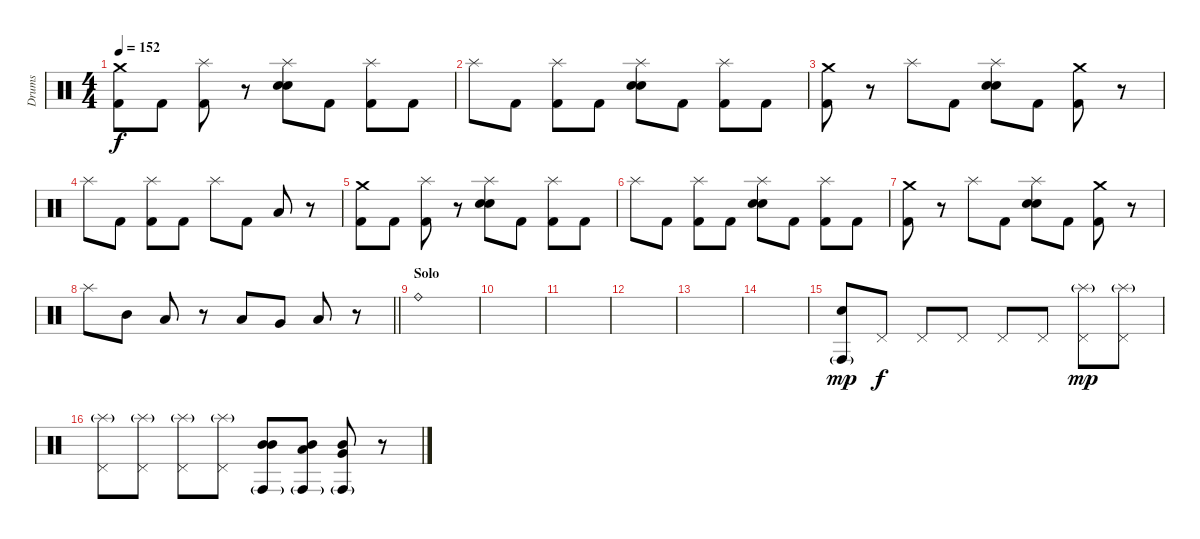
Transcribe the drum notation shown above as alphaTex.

\track ("Drums" "Drums") {instrument percussion}
\staff {score}
\articulation defaults
\ts (4 4)
\tempo 152
\clef neutral
\ks c
("Crash medium (hit)" "Kick (hit) 2").8{dy f} "Kick (hit) 2".8 ("Splash (hit)" "Kick (hit) 2").8 r.8 ("Splash (hit)" "Electric Snare (hit)" "Snare (hit) 2").8 "Kick (hit) 2".8 ("Splash (hit)" "Kick (hit) 2").8 "Kick (hit) 2".8 |
"Splash (hit)".8 "Kick (hit) 2".8 ("Splash (hit)" "Kick (hit) 2").8 "Kick (hit) 2".8 ("Splash (hit)" "Electric Snare (hit)" "Snare (hit) 2").8 "Kick (hit) 2".8 ("Splash (hit)" "Kick (hit) 2").8 "Kick (hit) 2".8 |
("Crash medium (hit)" "Kick (hit) 2").8 r.8 "Splash (hit)".8 "Kick (hit) 2".8 ("Splash (hit)" "Electric Snare (hit)" "Snare (hit) 2").8 "Kick (hit) 2".8 ("Crash medium (hit)" "Kick (hit) 2").8 r.8 |
"Splash (hit)".8 "Kick (hit) 2".8 ("Splash (hit)" "Kick (hit) 2").8 "Kick (hit) 2".8 "Splash (hit)".8 "Kick (hit) 2".8 "Low Tom (hit)".8 r.8 |
("Crash medium (hit)" "Kick (hit) 2").8 "Kick (hit) 2".8 ("Splash (hit)" "Kick (hit) 2").8 r.8 ("Splash (hit)" "Electric Snare (hit)" "Snare (hit) 2").8 "Kick (hit) 2".8 ("Splash (hit)" "Kick (hit) 2").8 "Kick (hit) 2".8 |
"Splash (hit)".8 "Kick (hit) 2".8 ("Splash (hit)" "Kick (hit) 2").8 "Kick (hit) 2".8 ("Splash (hit)" "Electric Snare (hit)" "Snare (hit) 2").8 "Kick (hit) 2".8 ("Splash (hit)" "Kick (hit) 2").8 "Kick (hit) 2".8 |
("Crash medium (hit)" "Kick (hit) 2").8 r.8 "Splash (hit)".8 "Kick (hit) 2".8 ("Splash (hit)" "Electric Snare (hit)" "Snare (hit) 2").8 "Kick (hit) 2".8 ("Crash medium (hit)" "Kick (hit) 2").8 r.8 |
\barLineRight lightlight "Splash (hit)".8 "Mid Tom (hit)".8 "Low Tom (hit)".8
r.8 "Low Tom (hit)".8 "Very Low Tom (hit)".8 "Low Floor Tom (hit)".8 r.8 |
\section ("" "Solo")
"Ride (bell)".1 |
|
|
|
|
|
("Conga high (hit)"{g} "Electric Snare (hit)").8{dy mp} "Pedal Hi-Hat (hit)".8{dy f volume 2} "Pedal Hi-Hat (hit)".8 "Pedal Hi-Hat (hit)".8 "Pedal Hi-Hat (hit)".8 "Pedal Hi-Hat (hit)".8 ("Splash (hit)"{g} "Pedal Hi-Hat (hit)").8{dy mp volume 12} ("Splash (hit)"{g} "Pedal Hi-Hat (hit)").8 |
("Splash (hit)"{g} "Pedal Hi-Hat (hit)").8 ("Splash (hit)"{g} "Pedal Hi-Hat (hit)").8 ("Splash (hit)"{g} "Pedal Hi-Hat (hit)").8 ("Splash (hit)"{g} "Pedal Hi-Hat (hit)").8 ("Mid Tom (hit)" "Conga high (hit)"{g} "Mid Tom (hit)").8 ("Mid Tom (hit)" "Conga high (hit)"{g} "Low Tom (hit)").8 ("Mid Tom (hit)" "Conga high (hit)"{g} "Very Low Tom (hit)").8 r.8
